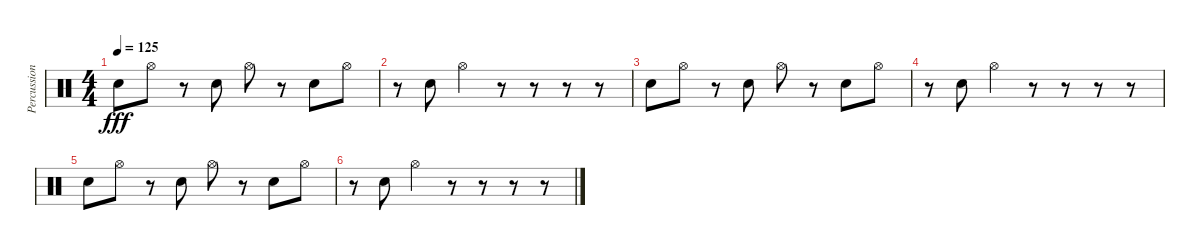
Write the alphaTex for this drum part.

\track ("Percussion" "Percussion") {instrument percussion}
\staff {score}
\articulation defaults
\ts (4 4)
\tempo 125
\clef neutral
\ks c "Snare (hit) 2".8{dy fff} "Hi-Hat (open)".8
r.8 "Snare (hit) 2".8 "Hi-Hat (open)".8 r.8 "Snare (hit) 2".8 "Hi-Hat (open)".8 |
r.8 "Snare (hit) 2".8 "Hi-Hat (open)".4 r.8 r.8 r.8 r.8 |
"Snare (hit) 2".8 "Hi-Hat (open)".8 r.8 "Snare (hit) 2".8 "Hi-Hat (open)".8 r.8 "Snare (hit) 2".8 "Hi-Hat (open)".8 |
r.8 "Snare (hit) 2".8 "Hi-Hat (open)".4 r.8 r.8 r.8 r.8 |
"Snare (hit) 2".8 "Hi-Hat (open)".8 r.8 "Snare (hit) 2".8 "Hi-Hat (open)".8 r.8 "Snare (hit) 2".8 "Hi-Hat (open)".8 |
r.8 "Snare (hit) 2".8 "Hi-Hat (open)".4 r.8 r.8 r.8 r.8
